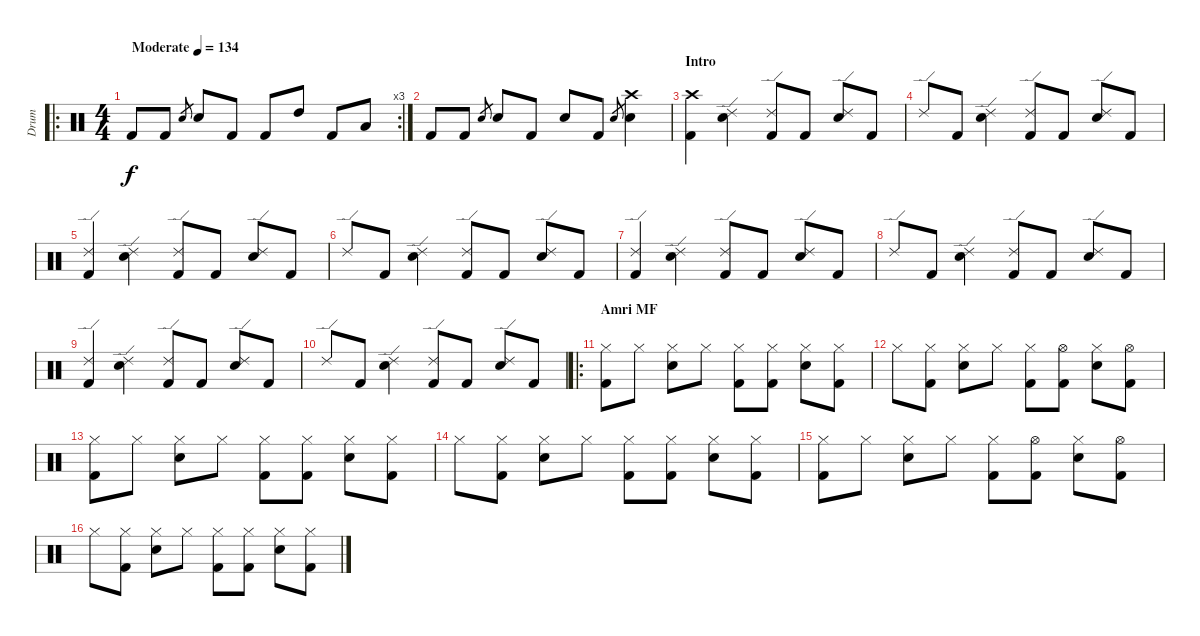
\track ("Drum" "Drum") {instrument percussion}
\staff {score}
\articulation defaults
\ro
\rc 3
\ts (4 4)
\tempo (134 "Moderate")
\clef neutral
\ks c "Kick (hit) 2".8{dy f} "Kick (hit) 2".8 "Electric Snare (hit)".8{gr} "Electric Snare (hit)".8 "Kick (hit) 2".8 "Kick (hit) 2".8 "High Tom (hit)".8 "Kick (hit) 2".8 "Low Tom (hit)".8
|
"Kick (hit) 2".8 "Kick (hit) 2".8 "Electric Snare (hit)".8{gr} "Electric Snare (hit)".8 "Kick (hit) 2".8 "Electric Snare (hit)".8 "Kick (hit) 2".8 "Electric Snare (hit)".8{gr} ("Electric Snare (hit)" "Crash high (hit)").4 |
\section ("" "Intro")
("Kick (hit) 2" "Crash high (hit)").4 ("Electric Snare (hit)" "Ride (edge) 2").4 ("Ride (edge) 2" "Kick (hit) 2").8 "Kick (hit) 2".8 ("Electric Snare (hit)" "Ride (edge) 2").8 "Kick (hit) 2".8 |
"Ride (edge) 2".8 "Kick (hit) 2".8 ("Electric Snare (hit)" "Ride (edge) 2").4 ("Kick (hit) 2" "Ride (edge) 2").8 "Kick (hit) 2".8 ("Ride (edge) 2" "Electric Snare (hit)").8 "Kick (hit) 2".8 |
("Kick (hit) 2" "Ride (edge) 2").4 ("Electric Snare (hit)" "Ride (edge) 2").4 ("Ride (edge) 2" "Kick (hit) 2").8 "Kick (hit) 2".8 ("Electric Snare (hit)" "Ride (edge) 2").8 "Kick (hit) 2".8 |
"Ride (edge) 2".8 "Kick (hit) 2".8 ("Electric Snare (hit)" "Ride (edge) 2").4 ("Kick (hit) 2" "Ride (edge) 2").8 "Kick (hit) 2".8 ("Ride (edge) 2" "Electric Snare (hit)").8 "Kick (hit) 2".8 |
("Kick (hit) 2" "Ride (edge) 2").4 ("Electric Snare (hit)" "Ride (edge) 2").4 ("Ride (edge) 2" "Kick (hit) 2").8 "Kick (hit) 2".8 ("Electric Snare (hit)" "Ride (edge) 2").8 "Kick (hit) 2".8 |
"Ride (edge) 2".8 "Kick (hit) 2".8 ("Electric Snare (hit)" "Ride (edge) 2").4 ("Kick (hit) 2" "Ride (edge) 2").8 "Kick (hit) 2".8 ("Ride (edge) 2" "Electric Snare (hit)").8 "Kick (hit) 2".8 |
("Kick (hit) 2" "Ride (edge) 2").4 ("Electric Snare (hit)" "Ride (edge) 2").4 ("Ride (edge) 2" "Kick (hit) 2").8 "Kick (hit) 2".8 ("Electric Snare (hit)" "Ride (edge) 2").8 "Kick (hit) 2".8 |
"Ride (edge) 2".8 "Kick (hit) 2".8 ("Electric Snare (hit)" "Ride (edge) 2").4 ("Kick (hit) 2" "Ride (edge) 2").8 "Kick (hit) 2".8 ("Ride (edge) 2" "Electric Snare (hit)").8 "Kick (hit) 2".8 |
\ro
\section ("" "Amri MF")
("Kick (hit) 2" "Hi-Hat (closed)").8 "Hi-Hat (closed)".8 ("Hi-Hat (closed)" "Electric Snare (hit)").8 "Hi-Hat (closed)".8 ("Hi-Hat (closed)" "Kick (hit) 2").8 ("Hi-Hat (closed)" "Kick (hit) 2").8 ("Electric Snare (hit)" "Hi-Hat (closed)").8 ("Hi-Hat (closed)" "Kick (hit) 2").8 |
"Hi-Hat (closed)".8 ("Hi-Hat (closed)" "Kick (hit) 2").8 ("Electric Snare (hit)" "Hi-Hat (closed)").8 "Hi-Hat (closed)".8 ("Kick (hit) 2" "Hi-Hat (closed)").8 ("Hi-Hat (open)" "Kick (hit) 2").8 ("Hi-Hat (closed)" "Electric Snare (hit)").8 ("Kick (hit) 2" "Hi-Hat (open)").8 |
("Kick (hit) 2" "Hi-Hat (closed)").8 "Hi-Hat (closed)".8 ("Hi-Hat (closed)" "Electric Snare (hit)").8 "Hi-Hat (closed)".8 ("Hi-Hat (closed)" "Kick (hit) 2").8 ("Hi-Hat (closed)" "Kick (hit) 2").8 ("Electric Snare (hit)" "Hi-Hat (closed)").8 ("Hi-Hat (closed)" "Kick (hit) 2").8 |
"Hi-Hat (closed)".8 ("Hi-Hat (closed)" "Kick (hit) 2").8 ("Electric Snare (hit)" "Hi-Hat (closed)").8 "Hi-Hat (closed)".8 ("Kick (hit) 2" "Hi-Hat (closed)").8 ("Hi-Hat (closed)" "Kick (hit) 2").8 ("Hi-Hat (closed)" "Electric Snare (hit)").8 ("Kick (hit) 2" "Hi-Hat (closed)").8 |
("Kick (hit) 2" "Hi-Hat (closed)").8 "Hi-Hat (closed)".8 ("Hi-Hat (closed)" "Electric Snare (hit)").8 "Hi-Hat (closed)".8 ("Hi-Hat (closed)" "Kick (hit) 2").8 ("Hi-Hat (open)" "Kick (hit) 2").8 ("Electric Snare (hit)" "Hi-Hat (closed)").8 ("Hi-Hat (open)" "Kick (hit) 2").8 |
"Hi-Hat (closed)".8 ("Hi-Hat (closed)" "Kick (hit) 2").8 ("Electric Snare (hit)" "Hi-Hat (closed)").8 "Hi-Hat (closed)".8 ("Kick (hit) 2" "Hi-Hat (closed)").8 ("Hi-Hat (closed)" "Kick (hit) 2").8 ("Hi-Hat (closed)" "Electric Snare (hit)").8 ("Kick (hit) 2" "Hi-Hat (closed)").8
